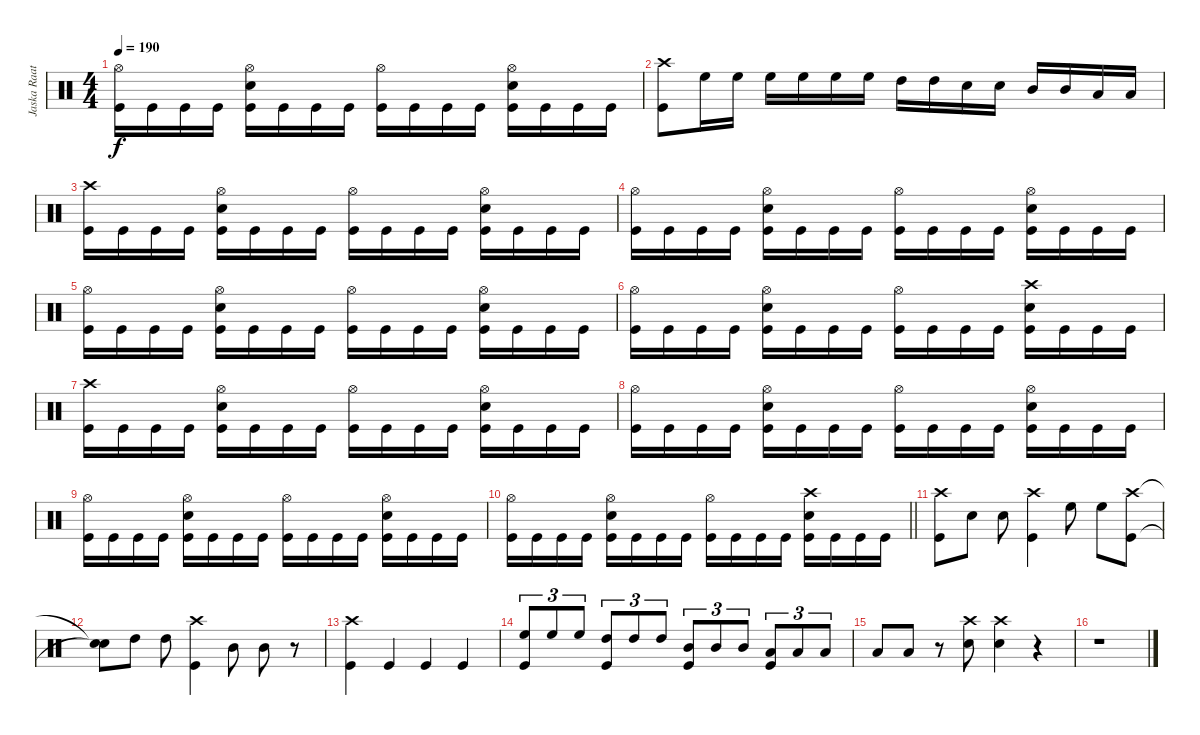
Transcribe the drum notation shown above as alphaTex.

\track ("Jaska Raatikainen" "Jaska Raat") {instrument percussion}
\staff {score}
\articulation defaults
\ts (4 4)
\tempo 190
\clef neutral
\ks c
("Hi-Hat (open)" "Kick (hit)").16{dy f} "Kick (hit)".16 "Kick (hit)".16 "Kick (hit)".16 ("Hi-Hat (open)" "Snare (hit) 2" "Kick (hit)").16 "Kick (hit)".16 "Kick (hit)".16 "Kick (hit)".16 ("Hi-Hat (open)" "Kick (hit)").16 "Kick (hit)".16 "Kick (hit)".16 "Kick (hit)".16 ("Hi-Hat (open)" "Snare (hit) 2" "Kick (hit)").16 "Kick (hit)".16 "Kick (hit)".16 "Kick (hit)".16 |
("Crash high (hit)" "Kick (hit)").8 "High Floor Tom (hit)".16 "High Floor Tom (hit)".16 "High Floor Tom (hit)".16 "High Floor Tom (hit)".16 "High Floor Tom (hit)".16 "High Floor Tom (hit)".16 "High Tom (hit)".16 "High Tom (hit)".16 "Snare (hit) 2".16 "Snare (hit) 2".16 "Mid Tom (hit)".16 "Mid Tom (hit)".16 "Low Tom (hit)".16 "Low Tom (hit)".16 |
("Crash high (hit)" "Kick (hit)").16 "Kick (hit)".16 "Kick (hit)".16 "Kick (hit)".16 ("Hi-Hat (open)" "Snare (hit) 2" "Kick (hit)").16 "Kick (hit)".16 "Kick (hit)".16 "Kick (hit)".16 ("Hi-Hat (open)" "Kick (hit)").16 "Kick (hit)".16 "Kick (hit)".16 "Kick (hit)".16 ("Hi-Hat (open)" "Snare (hit) 2" "Kick (hit)").16 "Kick (hit)".16 "Kick (hit)".16 "Kick (hit)".16 |
("Hi-Hat (open)" "Kick (hit)").16 "Kick (hit)".16 "Kick (hit)".16 "Kick (hit)".16 ("Hi-Hat (open)" "Snare (hit) 2" "Kick (hit)").16 "Kick (hit)".16 "Kick (hit)".16 "Kick (hit)".16 ("Hi-Hat (open)" "Kick (hit)").16 "Kick (hit)".16 "Kick (hit)".16 "Kick (hit)".16 ("Hi-Hat (open)" "Snare (hit) 2" "Kick (hit)").16 "Kick (hit)".16 "Kick (hit)".16 "Kick (hit)".16 |
("Hi-Hat (open)" "Kick (hit)").16 "Kick (hit)".16 "Kick (hit)".16 "Kick (hit)".16 ("Hi-Hat (open)" "Snare (hit) 2" "Kick (hit)").16 "Kick (hit)".16 "Kick (hit)".16 "Kick (hit)".16 ("Hi-Hat (open)" "Kick (hit)").16 "Kick (hit)".16 "Kick (hit)".16 "Kick (hit)".16 ("Hi-Hat (open)" "Snare (hit) 2" "Kick (hit)").16 "Kick (hit)".16 "Kick (hit)".16 "Kick (hit)".16 |
("Hi-Hat (open)" "Kick (hit)").16 "Kick (hit)".16 "Kick (hit)".16 "Kick (hit)".16 ("Hi-Hat (open)" "Snare (hit) 2" "Kick (hit)").16 "Kick (hit)".16 "Kick (hit)".16 "Kick (hit)".16 ("Hi-Hat (open)" "Kick (hit)").16 "Kick (hit)".16 "Kick (hit)".16 "Kick (hit)".16 ("Crash high (hit)" "Snare (hit) 2" "Kick (hit)").16 "Kick (hit)".16 "Kick (hit)".16 "Kick (hit)".16 |
("Crash high (hit)" "Kick (hit)").16 "Kick (hit)".16 "Kick (hit)".16 "Kick (hit)".16 ("Hi-Hat (open)" "Snare (hit) 2" "Kick (hit)").16 "Kick (hit)".16 "Kick (hit)".16 "Kick (hit)".16 ("Hi-Hat (open)" "Kick (hit)").16 "Kick (hit)".16 "Kick (hit)".16 "Kick (hit)".16 ("Hi-Hat (open)" "Snare (hit) 2" "Kick (hit)").16 "Kick (hit)".16 "Kick (hit)".16 "Kick (hit)".16 |
("Hi-Hat (open)" "Kick (hit)").16 "Kick (hit)".16 "Kick (hit)".16 "Kick (hit)".16 ("Hi-Hat (open)" "Snare (hit) 2" "Kick (hit)").16 "Kick (hit)".16 "Kick (hit)".16 "Kick (hit)".16 ("Hi-Hat (open)" "Kick (hit)").16 "Kick (hit)".16 "Kick (hit)".16 "Kick (hit)".16 ("Hi-Hat (open)" "Snare (hit) 2" "Kick (hit)").16 "Kick (hit)".16 "Kick (hit)".16 "Kick (hit)".16 |
("Hi-Hat (open)" "Kick (hit)").16 "Kick (hit)".16 "Kick (hit)".16 "Kick (hit)".16 ("Hi-Hat (open)" "Snare (hit) 2" "Kick (hit)").16 "Kick (hit)".16 "Kick (hit)".16 "Kick (hit)".16 ("Hi-Hat (open)" "Kick (hit)").16 "Kick (hit)".16 "Kick (hit)".16 "Kick (hit)".16 ("Hi-Hat (open)" "Snare (hit) 2" "Kick (hit)").16 "Kick (hit)".16 "Kick (hit)".16 "Kick (hit)".16 |
\barLineRight lightlight
("Hi-Hat (open)" "Kick (hit)").16 "Kick (hit)".16 "Kick (hit)".16 "Kick (hit)".16 ("Hi-Hat (open)" "Snare (hit) 2" "Kick (hit)").16 "Kick (hit)".16 "Kick (hit)".16 "Kick (hit)".16 ("Hi-Hat (open)" "Kick (hit)").16 "Kick (hit)".16 "Kick (hit)".16 "Kick (hit)".16 ("Crash high (hit)" "Snare (hit) 2" "Kick (hit)").16 "Kick (hit)".16 "Kick (hit)".16 "Kick (hit)".16 |
("Crash high (hit)" "Kick (hit)").8 "Snare (hit) 2".8 "Snare (hit) 2".8 ("Crash high (hit)" "Kick (hit)").4 "High Floor Tom (hit)".8 "High Floor Tom (hit)".8 ("Crash high (hit)" "Kick (hit)").8 |
("Snare (hit)"{t} "Snare (hit)"{t}).8 "High Tom (hit)".8 "High Tom (hit)".8 ("Crash high (hit)" "Kick (hit)").4 "Mid Tom (hit)".8 "Mid Tom (hit)".8 r.8 |
("Crash high (hit)" "Kick (hit)").4 "Kick (hit)".4 "Kick (hit)".4 "Kick (hit)".4 |
("High Floor Tom (hit)" "Kick (hit)").8{tu (3 2)} "High Floor Tom (hit)".8{tu (3 2)} "High Floor Tom (hit)".8{tu (3 2)} ("High Tom (hit)" "Kick (hit)").8{tu (3 2)} "High Tom (hit)".8{tu (3 2)} "High Tom (hit)".8{tu (3 2)} ("Mid Tom (hit)" "Kick (hit)").8{tu (3 2)} "Mid Tom (hit)".8{tu (3 2)} "Mid Tom (hit)".8{tu (3 2)} ("Low Tom (hit)" "Kick (hit)").8{tu (3 2)} "Low Tom (hit)".8{tu (3 2)} "Low Tom (hit)".8{tu (3 2)} |
"Low Floor Tom (hit)".8 "Low Floor Tom (hit)".8 r.8 ("Crash high (hit)" "Snare (hit) 2").8 ("Crash high (hit)" "Snare (hit) 2").4 r.4 |
r.1
